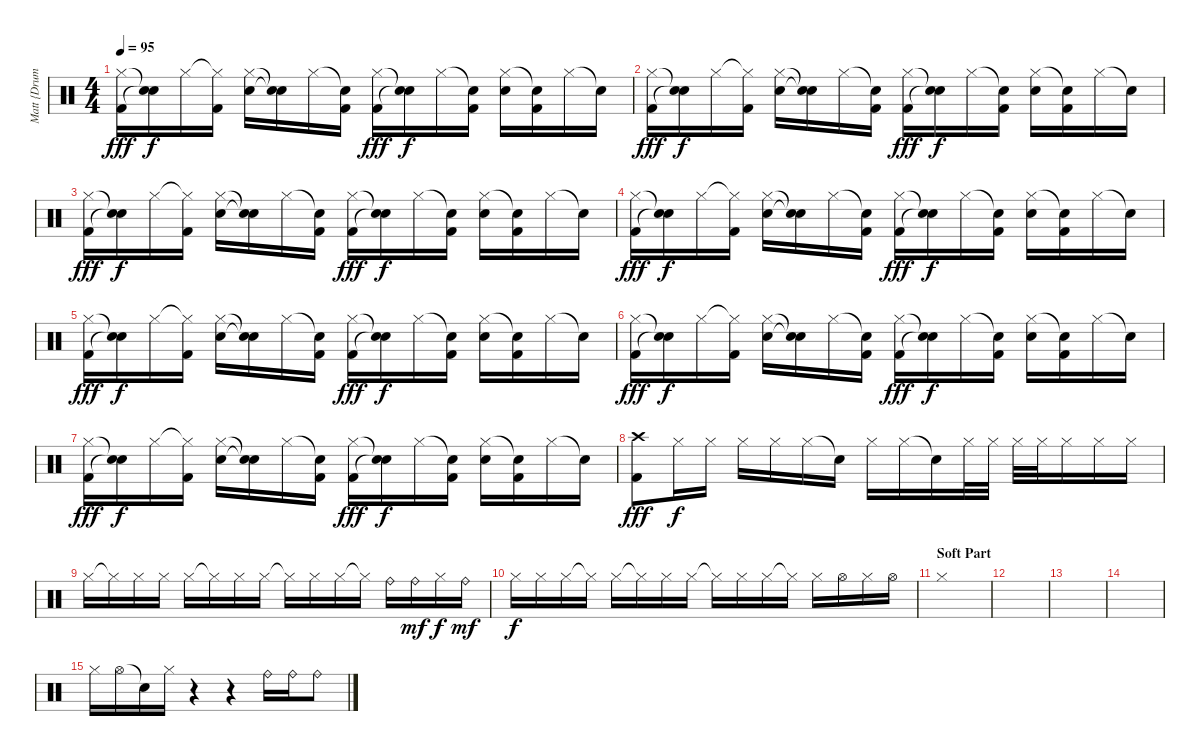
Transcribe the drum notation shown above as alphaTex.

\track ("Matt {Drums}" "Matt {Drum") {instrument percussion}
\staff {score}
\articulation defaults
\ts (4 4)
\tempo 95
\clef neutral
\ks c
("Hi-Hat (closed)" "Kick (hit) 2").16{dy fff} ("Snare (hit)"{t} "Snare (hit)"{t}).16{dy f} "Hi-Hat (closed)".16 ("Hi-Hat (closed)"{t} "Kick (hit) 2").16 ("Hi-Hat (closed)" "Electric Snare (hit)").16 ("Snare (hit)"{t} "Snare (hit)"{t}).16 "Hi-Hat (closed)".16 ("Snare (hit)"{t} "Kick (hit) 2").16 ("Hi-Hat (closed)" "Kick (hit) 2").16{dy fff} ("Snare (hit)"{t} "Snare (hit)"{t}).16{dy f} "Hi-Hat (closed)".16 ("Snare (hit)"{t} "Kick (hit) 2").16 ("Hi-Hat (closed)" "Electric Snare (hit)").16 ("Snare (hit)"{t} "Kick (hit) 2").16 "Hi-Hat (closed)".16 "Snare (hit)"{t}.16 |
("Hi-Hat (closed)" "Kick (hit) 2").16{dy fff} ("Snare (hit)"{t} "Snare (hit)"{t}).16{dy f} "Hi-Hat (closed)".16 ("Hi-Hat (closed)"{t} "Kick (hit) 2").16 ("Hi-Hat (closed)" "Electric Snare (hit)").16 ("Snare (hit)"{t} "Snare (hit)"{t}).16 "Hi-Hat (closed)".16 ("Snare (hit)"{t} "Kick (hit) 2").16 ("Hi-Hat (closed)" "Kick (hit) 2").16{dy fff} ("Snare (hit)"{t} "Snare (hit)"{t}).16{dy f} "Hi-Hat (closed)".16 ("Snare (hit)"{t} "Kick (hit) 2").16 ("Hi-Hat (closed)" "Electric Snare (hit)").16 ("Snare (hit)"{t} "Kick (hit) 2").16 "Hi-Hat (closed)".16 "Snare (hit)"{t}.16 |
("Hi-Hat (closed)" "Kick (hit) 2").16{dy fff} ("Snare (hit)"{t} "Snare (hit)"{t}).16{dy f} "Hi-Hat (closed)".16 ("Hi-Hat (closed)"{t} "Kick (hit) 2").16 ("Hi-Hat (closed)" "Electric Snare (hit)").16 ("Snare (hit)"{t} "Snare (hit)"{t}).16 "Hi-Hat (closed)".16 ("Snare (hit)"{t} "Kick (hit) 2").16 ("Hi-Hat (closed)" "Kick (hit) 2").16{dy fff} ("Snare (hit)"{t} "Snare (hit)"{t}).16{dy f} "Hi-Hat (closed)".16 ("Snare (hit)"{t} "Kick (hit) 2").16 ("Hi-Hat (closed)" "Electric Snare (hit)").16 ("Snare (hit)"{t} "Kick (hit) 2").16 "Hi-Hat (closed)".16 "Snare (hit)"{t}.16 |
("Hi-Hat (closed)" "Kick (hit) 2").16{dy fff} ("Snare (hit)"{t} "Snare (hit)"{t}).16{dy f} "Hi-Hat (closed)".16 ("Hi-Hat (closed)"{t} "Kick (hit) 2").16 ("Hi-Hat (closed)" "Electric Snare (hit)").16 ("Snare (hit)"{t} "Snare (hit)"{t}).16 "Hi-Hat (closed)".16 ("Snare (hit)"{t} "Kick (hit) 2").16 ("Hi-Hat (closed)" "Kick (hit) 2").16{dy fff} ("Snare (hit)"{t} "Snare (hit)"{t}).16{dy f} "Hi-Hat (closed)".16 ("Snare (hit)"{t} "Kick (hit) 2").16 ("Hi-Hat (closed)" "Electric Snare (hit)").16 ("Snare (hit)"{t} "Kick (hit) 2").16 "Hi-Hat (closed)".16 "Snare (hit)"{t}.16 |
("Hi-Hat (closed)" "Kick (hit) 2").16{dy fff} ("Snare (hit)"{t} "Snare (hit)"{t}).16{dy f} "Hi-Hat (closed)".16 ("Hi-Hat (closed)"{t} "Kick (hit) 2").16 ("Hi-Hat (closed)" "Electric Snare (hit)").16 ("Snare (hit)"{t} "Snare (hit)"{t}).16 "Hi-Hat (closed)".16 ("Snare (hit)"{t} "Kick (hit) 2").16 ("Hi-Hat (closed)" "Kick (hit) 2").16{dy fff} ("Snare (hit)"{t} "Snare (hit)"{t}).16{dy f} "Hi-Hat (closed)".16 ("Snare (hit)"{t} "Kick (hit) 2").16 ("Hi-Hat (closed)" "Electric Snare (hit)").16 ("Snare (hit)"{t} "Kick (hit) 2").16 "Hi-Hat (closed)".16 "Snare (hit)"{t}.16 |
("Hi-Hat (closed)" "Kick (hit) 2").16{dy fff} ("Snare (hit)"{t} "Snare (hit)"{t}).16{dy f} "Hi-Hat (closed)".16 ("Hi-Hat (closed)"{t} "Kick (hit) 2").16 ("Hi-Hat (closed)" "Electric Snare (hit)").16 ("Snare (hit)"{t} "Snare (hit)"{t}).16 "Hi-Hat (closed)".16 ("Snare (hit)"{t} "Kick (hit) 2").16 ("Hi-Hat (closed)" "Kick (hit) 2").16{dy fff} ("Snare (hit)"{t} "Snare (hit)"{t}).16{dy f} "Hi-Hat (closed)".16 ("Snare (hit)"{t} "Kick (hit) 2").16 ("Hi-Hat (closed)" "Electric Snare (hit)").16 ("Snare (hit)"{t} "Kick (hit) 2").16 "Hi-Hat (closed)".16 "Snare (hit)"{t}.16 |
("Hi-Hat (closed)" "Kick (hit) 2").16{dy fff} ("Snare (hit)"{t} "Snare (hit)"{t}).16{dy f} "Hi-Hat (closed)".16 ("Hi-Hat (closed)"{t} "Kick (hit) 2").16 ("Hi-Hat (closed)" "Electric Snare (hit)").16 ("Snare (hit)"{t} "Snare (hit)"{t}).16 "Hi-Hat (closed)".16 ("Snare (hit)"{t} "Kick (hit) 2").16 ("Hi-Hat (closed)" "Kick (hit) 2").16{dy fff} ("Snare (hit)"{t} "Snare (hit)"{t}).16{dy f} "Hi-Hat (closed)".16 ("Snare (hit)"{t} "Kick (hit) 2").16 ("Hi-Hat (closed)" "Electric Snare (hit)").16 ("Snare (hit)"{t} "Kick (hit) 2").16 "Hi-Hat (closed)".16 "Snare (hit)"{t}.16 |
("Crash high (hit)" "Kick (hit) 2").8{dy fff} "Hi-Hat (closed)".16{dy f} "Hi-Hat (closed)".16 "Hi-Hat (closed)".16 "Hi-Hat (closed)".16 "Hi-Hat (closed)".16 "Snare (hit)"{t}.16 "Hi-Hat (closed)".16 "Hi-Hat (closed)".16 "Snare (hit)"{t}.16 "Hi-Hat (closed)".32 "Hi-Hat (closed)".32 "Hi-Hat (closed)".32 "Hi-Hat (closed)".32 "Hi-Hat (closed)".16 "Hi-Hat (closed)".16 "Hi-Hat (closed)".16 |
"Hi-Hat (closed)".16 "Hi-Hat (closed)"{t}.16 "Hi-Hat (closed)".16 "Hi-Hat (closed)".16 "Hi-Hat (closed)".16 "Hi-Hat (closed)"{t}.16 "Hi-Hat (closed)".16 "Hi-Hat (closed)".16 "Hi-Hat (closed)"{t}.16 "Hi-Hat (closed)".16 "Hi-Hat (closed)".16 "Hi-Hat (closed)"{t}.16 "Ride (bell)".16 "Ride (bell)".16{dy mf} "Hi-Hat (closed)".16{dy f} "Ride (bell)".16{dy mf} |
"Hi-Hat (closed)".16{dy f} "Hi-Hat (closed)".16 "Hi-Hat (closed)".16 "Hi-Hat (closed)"{t}.16 "Hi-Hat (closed)".16 "Hi-Hat (closed)"{t}.16 "Hi-Hat (closed)".16 "Hi-Hat (closed)".16 "Hi-Hat (closed)"{t}.16 "Hi-Hat (closed)".16 "Hi-Hat (closed)".16 "Hi-Hat (closed)"{t}.16 "Hi-Hat (closed)".16 "Hi-Hat (open)".16 "Hi-Hat (closed)".16 "Hi-Hat (open)".16 |
\section ("" "Soft Part")
"Hi-Hat (closed)".1 |
|
|
|
"Hi-Hat (closed)".16 "Hi-Hat (open)".16 "Snare (hit)"{t}.16 "Hi-Hat (closed)".16 r.4 r.4 "Ride (bell)".16 "Ride (bell)".16 "Ride (bell)".8
